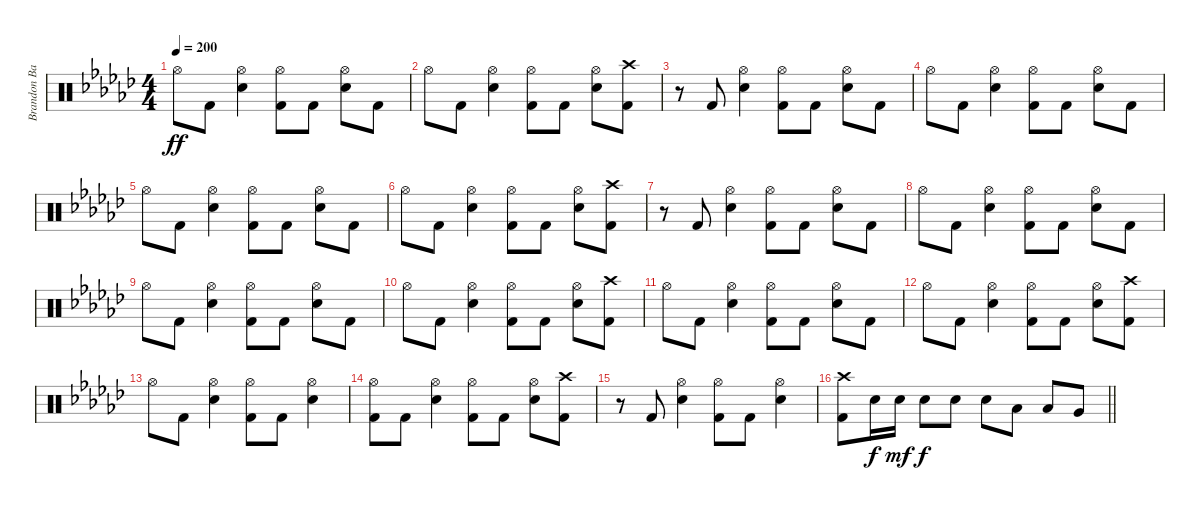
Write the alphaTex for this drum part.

\track ("Brandon Barnes - Drums" "Brandon Ba") {instrument percussion}
\staff {score}
\articulation defaults
\ts (4 4)
\tempo 200
\clef neutral
\ks ebminor "Hi-Hat (open)".8{dy ff} "Kick (hit) 2".8
("Snare (hit) 2" "Hi-Hat (open)").4 ("Kick (hit) 2" "Hi-Hat (open)").8 "Kick (hit) 2".8 ("Snare (hit) 2" "Hi-Hat (open)").8 "Kick (hit) 2".8 |
"Hi-Hat (open)".8 "Kick (hit) 2".8 ("Snare (hit) 2" "Hi-Hat (open)").4 ("Kick (hit) 2" "Hi-Hat (open)").8 "Kick (hit) 2".8 ("Snare (hit) 2" "Hi-Hat (open)").8 ("Kick (hit) 2" "Crash high (hit)").8 |
r.8 "Kick (hit) 2".8 ("Snare (hit) 2" "Hi-Hat (open)").4 ("Kick (hit) 2" "Hi-Hat (open)").8 "Kick (hit) 2".8 ("Snare (hit) 2" "Hi-Hat (open)").8 "Kick (hit) 2".8 |
"Hi-Hat (open)".8 "Kick (hit) 2".8 ("Snare (hit) 2" "Hi-Hat (open)").4 ("Kick (hit) 2" "Hi-Hat (open)").8 "Kick (hit) 2".8 ("Snare (hit) 2" "Hi-Hat (open)").8 "Kick (hit) 2".8 |
"Hi-Hat (open)".8 "Kick (hit) 2".8 ("Snare (hit) 2" "Hi-Hat (open)").4 ("Kick (hit) 2" "Hi-Hat (open)").8 "Kick (hit) 2".8 ("Snare (hit) 2" "Hi-Hat (open)").8 "Kick (hit) 2".8 |
"Hi-Hat (open)".8 "Kick (hit) 2".8 ("Snare (hit) 2" "Hi-Hat (open)").4 ("Kick (hit) 2" "Hi-Hat (open)").8 "Kick (hit) 2".8 ("Snare (hit) 2" "Hi-Hat (open)").8 ("Kick (hit) 2" "Crash high (hit)").8 |
r.8 "Kick (hit) 2".8 ("Snare (hit) 2" "Hi-Hat (open)").4 ("Kick (hit) 2" "Hi-Hat (open)").8 "Kick (hit) 2".8 ("Snare (hit) 2" "Hi-Hat (open)").8 "Kick (hit) 2".8 |
"Hi-Hat (open)".8 "Kick (hit) 2".8 ("Snare (hit) 2" "Hi-Hat (open)").4 ("Kick (hit) 2" "Hi-Hat (open)").8 "Kick (hit) 2".8 ("Snare (hit) 2" "Hi-Hat (open)").8 "Kick (hit) 2".8 |
"Hi-Hat (open)".8 "Kick (hit) 2".8 ("Snare (hit) 2" "Hi-Hat (open)").4 ("Kick (hit) 2" "Hi-Hat (open)").8 "Kick (hit) 2".8 ("Snare (hit) 2" "Hi-Hat (open)").8 "Kick (hit) 2".8 |
"Hi-Hat (open)".8 "Kick (hit) 2".8 ("Snare (hit) 2" "Hi-Hat (open)").4 ("Kick (hit) 2" "Hi-Hat (open)").8 "Kick (hit) 2".8 ("Snare (hit) 2" "Hi-Hat (open)").8 ("Kick (hit) 2" "Crash high (hit)").8 |
"Hi-Hat (open)".8 "Kick (hit) 2".8 ("Snare (hit) 2" "Hi-Hat (open)").4 ("Kick (hit) 2" "Hi-Hat (open)").8 "Kick (hit) 2".8 ("Snare (hit) 2" "Hi-Hat (open)").8 "Kick (hit) 2".8 |
"Hi-Hat (open)".8 "Kick (hit) 2".8 ("Snare (hit) 2" "Hi-Hat (open)").4 ("Kick (hit) 2" "Hi-Hat (open)").8 "Kick (hit) 2".8 ("Snare (hit) 2" "Hi-Hat (open)").8 ("Kick (hit) 2" "Crash high (hit)").8 |
"Hi-Hat (open)".8 "Kick (hit) 2".8 ("Snare (hit) 2" "Hi-Hat (open)").4 ("Kick (hit) 2" "Hi-Hat (open)").8 "Kick (hit) 2".8 ("Snare (hit) 2" "Hi-Hat (open)").4 |
("Kick (hit) 2" "Hi-Hat (open)").8 "Kick (hit) 2".8 ("Snare (hit) 2" "Hi-Hat (open)").4 ("Kick (hit) 2" "Hi-Hat (open)").8 "Kick (hit) 2".8 ("Snare (hit) 2" "Hi-Hat (open)").8 ("Kick (hit) 2" "Crash high (hit)").8 |
r.8 "Kick (hit) 2".8 ("Snare (hit) 2" "Hi-Hat (open)").4 ("Kick (hit) 2" "Hi-Hat (open)").8 "Kick (hit) 2".8 ("Snare (hit) 2" "Hi-Hat (open)").4 |
\barLineRight lightlight
("Kick (hit) 2" "Crash high (hit)").8 "Snare (hit) 2".16{dy f} "Snare (hit) 2".16{dy mf} "Snare (hit) 2".8{dy f} "Snare (hit) 2".8 "Snare (hit) 2".8 "Low Tom (hit)".8 "Low Tom (hit)".8 "Very Low Tom (hit)".8
